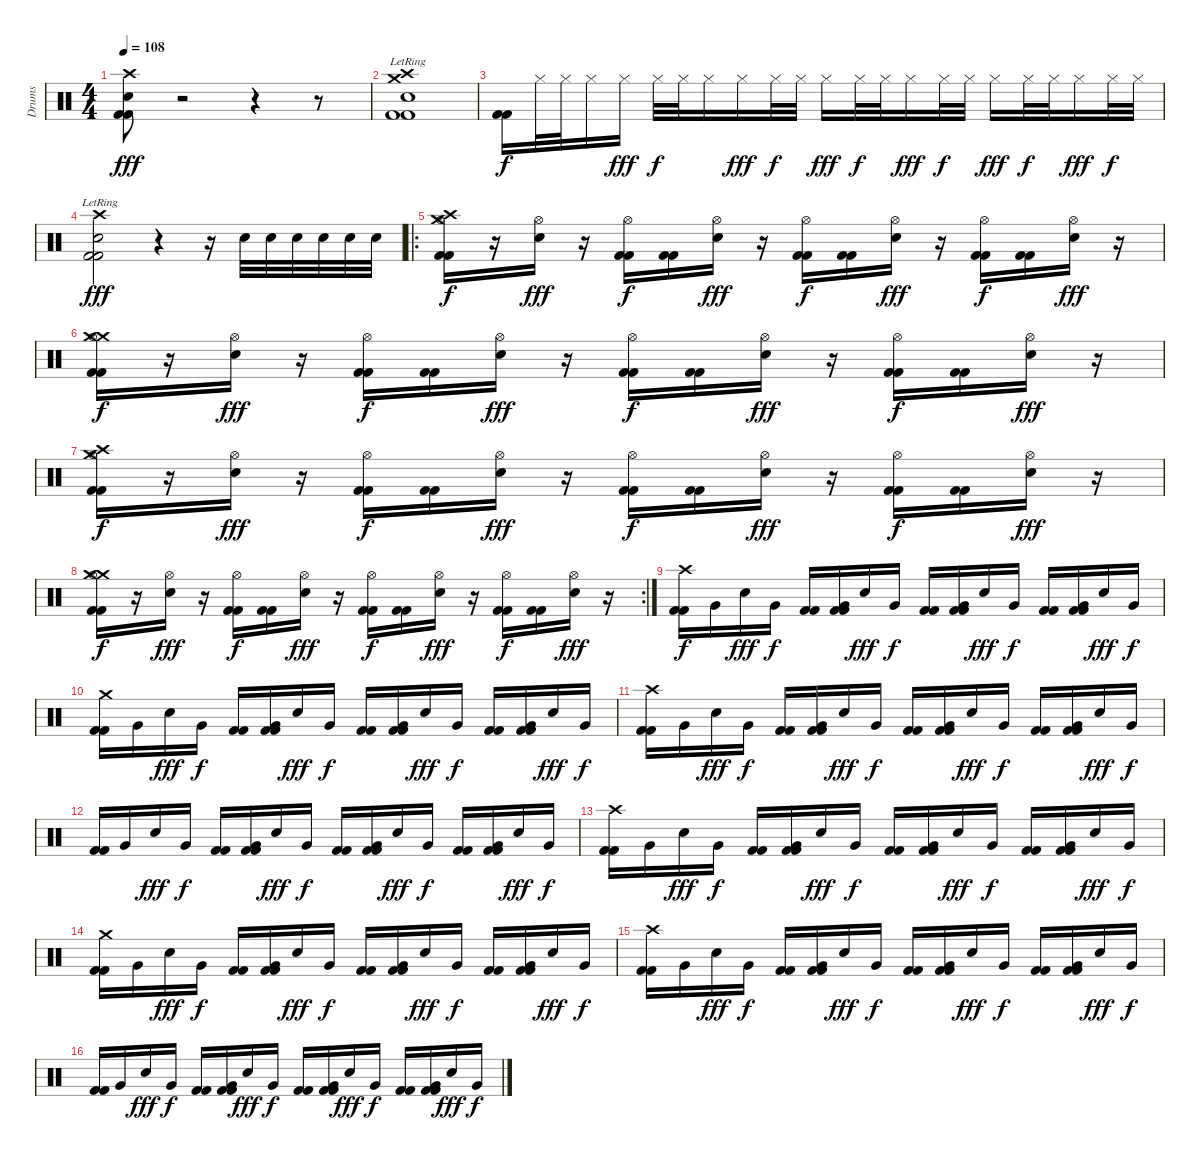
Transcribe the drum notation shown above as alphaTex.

\track ("Drums" "Drums") {instrument percussion}
\staff {score}
\articulation defaults
\ts (4 4)
\tempo 108
\clef neutral
\ks c
("Crash high (hit)" "Electric Snare (hit)" "Kick (hit) 2" "Kick (hit) 2").8{dy fff} r.2 r.4 r.8 |
("Crash high (hit)"{lr} "Crash medium (hit)"{lr} "Electric Snare (hit)"{lr} "Kick (hit) 2"{lr} "Kick (hit) 2"{lr}).1 |
("Kick (hit) 2" "Kick (hit) 2").16{dy f} "Hi-Hat (closed)".32 "Hi-Hat (closed)".32 "Hi-Hat (closed)".16 "Hi-Hat (closed)".16{dy fff} "Hi-Hat (closed)".32{dy f} "Hi-Hat (closed)".32 "Hi-Hat (closed)".16 "Hi-Hat (closed)".16{dy fff} "Hi-Hat (closed)".32{dy f} "Hi-Hat (closed)".32 "Hi-Hat (closed)".16{dy fff} "Hi-Hat (closed)".32{dy f} "Hi-Hat (closed)".32 "Hi-Hat (closed)".16{dy fff} "Hi-Hat (closed)".32{dy f} "Hi-Hat (closed)".32 "Hi-Hat (closed)".16{dy fff} "Hi-Hat (closed)".32{dy f} "Hi-Hat (closed)".32 "Hi-Hat (closed)".16{dy fff} "Hi-Hat (closed)".32{dy f} "Hi-Hat (closed)".32 |
("Crash high (hit)"{lr} "Electric Snare (hit)"{lr} "Kick (hit) 2"{lr} "Kick (hit) 2"{lr}).2{dy fff} r.4 r.16 "Electric Snare (hit)".32 "Electric Snare (hit)".32 "Electric Snare (hit)".32 "Electric Snare (hit)".32 "Electric Snare (hit)".32 "Electric Snare (hit)".32 |
\ro
("Crash high (hit)" "Crash medium (hit)" "Hi-Hat (open)" "Kick (hit) 2" "Kick (hit) 2").16{dy f} r.16 ("Hi-Hat (open)" "Electric Snare (hit)").16{dy fff} r.16 ("Hi-Hat (open)" "Kick (hit) 2" "Kick (hit) 2").16{dy f} ("Kick (hit) 2" "Kick (hit) 2").16 ("Hi-Hat (open)" "Electric Snare (hit)").16{dy fff} r.16 ("Hi-Hat (open)" "Kick (hit) 2" "Kick (hit) 2").16{dy f} ("Kick (hit) 2" "Kick (hit) 2").16 ("Hi-Hat (open)" "Electric Snare (hit)").16{dy fff} r.16 ("Hi-Hat (open)" "Kick (hit) 2" "Kick (hit) 2").16{dy f} ("Kick (hit) 2" "Kick (hit) 2").16 ("Hi-Hat (open)" "Electric Snare (hit)").16{dy fff} r.16 |
("Crash medium (hit)" "Crash medium (hit)" "Hi-Hat (open)" "Kick (hit) 2" "Kick (hit) 2").16{dy f} r.16 ("Hi-Hat (open)" "Electric Snare (hit)").16{dy fff} r.16 ("Hi-Hat (open)" "Kick (hit) 2" "Kick (hit) 2").16{dy f} ("Kick (hit) 2" "Kick (hit) 2").16 ("Hi-Hat (open)" "Electric Snare (hit)").16{dy fff} r.16 ("Hi-Hat (open)" "Kick (hit) 2" "Kick (hit) 2").16{dy f} ("Kick (hit) 2" "Kick (hit) 2").16 ("Hi-Hat (open)" "Electric Snare (hit)").16{dy fff} r.16 ("Hi-Hat (open)" "Kick (hit) 2" "Kick (hit) 2").16{dy f} ("Kick (hit) 2" "Kick (hit) 2").16 ("Hi-Hat (open)" "Electric Snare (hit)").16{dy fff} r.16 |
("Crash high (hit)" "Crash medium (hit)" "Hi-Hat (open)" "Kick (hit) 2" "Kick (hit) 2").16{dy f} r.16 ("Hi-Hat (open)" "Electric Snare (hit)").16{dy fff} r.16 ("Hi-Hat (open)" "Kick (hit) 2" "Kick (hit) 2").16{dy f} ("Kick (hit) 2" "Kick (hit) 2").16 ("Hi-Hat (open)" "Electric Snare (hit)").16{dy fff} r.16 ("Hi-Hat (open)" "Kick (hit) 2" "Kick (hit) 2").16{dy f} ("Kick (hit) 2" "Kick (hit) 2").16 ("Hi-Hat (open)" "Electric Snare (hit)").16{dy fff} r.16 ("Hi-Hat (open)" "Kick (hit) 2" "Kick (hit) 2").16{dy f} ("Kick (hit) 2" "Kick (hit) 2").16 ("Hi-Hat (open)" "Electric Snare (hit)").16{dy fff} r.16 |
\rc 2
("Crash medium (hit)" "Crash medium (hit)" "Hi-Hat (open)" "Kick (hit) 2" "Kick (hit) 2").16{dy f} r.16 ("Hi-Hat (open)" "Electric Snare (hit)").16{dy fff} r.16 ("Hi-Hat (open)" "Kick (hit) 2" "Kick (hit) 2").16{dy f} ("Kick (hit) 2" "Kick (hit) 2").16 ("Hi-Hat (open)" "Electric Snare (hit)").16{dy fff} r.16 ("Hi-Hat (open)" "Kick (hit) 2" "Kick (hit) 2").16{dy f} ("Kick (hit) 2" "Kick (hit) 2").16 ("Hi-Hat (open)" "Electric Snare (hit)").16{dy fff} r.16 ("Hi-Hat (open)" "Kick (hit) 2" "Kick (hit) 2").16{dy f} ("Kick (hit) 2" "Kick (hit) 2").16 ("Hi-Hat (open)" "Electric Snare (hit)").16{dy fff} r.16 |
("Crash high (hit)" "Kick (hit) 2" "Kick (hit) 2").16{dy f} "Very Low Tom (hit)".16 "Electric Snare (hit)".16{dy fff} "Very Low Tom (hit)".16{dy f} ("Kick (hit) 2" "Kick (hit) 2").16 ("Very Low Tom (hit)" "Kick (hit) 2" "Kick (hit) 2").16 "Electric Snare (hit)".16{dy fff} "Very Low Tom (hit)".16{dy f} ("Kick (hit) 2" "Kick (hit) 2").16 ("Very Low Tom (hit)" "Kick (hit) 2" "Kick (hit) 2").16 "Electric Snare (hit)".16{dy fff} "Very Low Tom (hit)".16{dy f} ("Kick (hit) 2" "Kick (hit) 2").16 ("Very Low Tom (hit)" "Kick (hit) 2" "Kick (hit) 2").16 "Electric Snare (hit)".16{dy fff} "Very Low Tom (hit)".16{dy f} |
("Crash medium (hit)" "Kick (hit) 2" "Kick (hit) 2").16 "Very Low Tom (hit)".16 "Electric Snare (hit)".16{dy fff} "Very Low Tom (hit)".16{dy f} ("Kick (hit) 2" "Kick (hit) 2").16 ("Very Low Tom (hit)" "Kick (hit) 2" "Kick (hit) 2").16 "Electric Snare (hit)".16{dy fff} "Very Low Tom (hit)".16{dy f} ("Kick (hit) 2" "Kick (hit) 2").16 ("Very Low Tom (hit)" "Kick (hit) 2" "Kick (hit) 2").16 "Electric Snare (hit)".16{dy fff} "Very Low Tom (hit)".16{dy f} ("Kick (hit) 2" "Kick (hit) 2").16 ("Very Low Tom (hit)" "Kick (hit) 2" "Kick (hit) 2").16 "Electric Snare (hit)".16{dy fff} "Very Low Tom (hit)".16{dy f} |
("Crash high (hit)" "Kick (hit) 2" "Kick (hit) 2").16 "Very Low Tom (hit)".16 "Electric Snare (hit)".16{dy fff} "Very Low Tom (hit)".16{dy f} ("Kick (hit) 2" "Kick (hit) 2").16 ("Very Low Tom (hit)" "Kick (hit) 2" "Kick (hit) 2").16 "Electric Snare (hit)".16{dy fff} "Very Low Tom (hit)".16{dy f} ("Kick (hit) 2" "Kick (hit) 2").16 ("Very Low Tom (hit)" "Kick (hit) 2" "Kick (hit) 2").16 "Electric Snare (hit)".16{dy fff} "Very Low Tom (hit)".16{dy f} ("Kick (hit) 2" "Kick (hit) 2").16 ("Very Low Tom (hit)" "Kick (hit) 2" "Kick (hit) 2").16 "Electric Snare (hit)".16{dy fff} "Very Low Tom (hit)".16{dy f} |
("Kick (hit) 2" "Kick (hit) 2").16 "Very Low Tom (hit)".16 "Electric Snare (hit)".16{dy fff} "Very Low Tom (hit)".16{dy f} ("Kick (hit) 2" "Kick (hit) 2").16 ("Very Low Tom (hit)" "Kick (hit) 2" "Kick (hit) 2").16 "Electric Snare (hit)".16{dy fff} "Very Low Tom (hit)".16{dy f} ("Kick (hit) 2" "Kick (hit) 2").16 ("Very Low Tom (hit)" "Kick (hit) 2" "Kick (hit) 2").16 "Electric Snare (hit)".16{dy fff} "Very Low Tom (hit)".16{dy f} ("Kick (hit) 2" "Kick (hit) 2").16 ("Very Low Tom (hit)" "Kick (hit) 2" "Kick (hit) 2").16 "Electric Snare (hit)".16{dy fff} "Very Low Tom (hit)".16{dy f} |
("Crash high (hit)" "Kick (hit) 2" "Kick (hit) 2").16 "Very Low Tom (hit)".16 "Electric Snare (hit)".16{dy fff} "Very Low Tom (hit)".16{dy f} ("Kick (hit) 2" "Kick (hit) 2").16 ("Very Low Tom (hit)" "Kick (hit) 2" "Kick (hit) 2").16 "Electric Snare (hit)".16{dy fff} "Very Low Tom (hit)".16{dy f} ("Kick (hit) 2" "Kick (hit) 2").16 ("Very Low Tom (hit)" "Kick (hit) 2" "Kick (hit) 2").16 "Electric Snare (hit)".16{dy fff} "Very Low Tom (hit)".16{dy f} ("Kick (hit) 2" "Kick (hit) 2").16 ("Very Low Tom (hit)" "Kick (hit) 2" "Kick (hit) 2").16 "Electric Snare (hit)".16{dy fff} "Very Low Tom (hit)".16{dy f} |
("Crash medium (hit)" "Kick (hit) 2" "Kick (hit) 2").16 "Very Low Tom (hit)".16 "Electric Snare (hit)".16{dy fff} "Very Low Tom (hit)".16{dy f} ("Kick (hit) 2" "Kick (hit) 2").16 ("Very Low Tom (hit)" "Kick (hit) 2" "Kick (hit) 2").16 "Electric Snare (hit)".16{dy fff} "Very Low Tom (hit)".16{dy f} ("Kick (hit) 2" "Kick (hit) 2").16 ("Very Low Tom (hit)" "Kick (hit) 2" "Kick (hit) 2").16 "Electric Snare (hit)".16{dy fff} "Very Low Tom (hit)".16{dy f} ("Kick (hit) 2" "Kick (hit) 2").16 ("Very Low Tom (hit)" "Kick (hit) 2" "Kick (hit) 2").16 "Electric Snare (hit)".16{dy fff} "Very Low Tom (hit)".16{dy f} |
("Crash high (hit)" "Kick (hit) 2" "Kick (hit) 2").16 "Very Low Tom (hit)".16 "Electric Snare (hit)".16{dy fff} "Very Low Tom (hit)".16{dy f} ("Kick (hit) 2" "Kick (hit) 2").16 ("Very Low Tom (hit)" "Kick (hit) 2" "Kick (hit) 2").16 "Electric Snare (hit)".16{dy fff} "Very Low Tom (hit)".16{dy f} ("Kick (hit) 2" "Kick (hit) 2").16 ("Very Low Tom (hit)" "Kick (hit) 2" "Kick (hit) 2").16 "Electric Snare (hit)".16{dy fff} "Very Low Tom (hit)".16{dy f} ("Kick (hit) 2" "Kick (hit) 2").16 ("Very Low Tom (hit)" "Kick (hit) 2" "Kick (hit) 2").16 "Electric Snare (hit)".16{dy fff} "Very Low Tom (hit)".16{dy f} |
("Kick (hit) 2" "Kick (hit) 2").16 "Very Low Tom (hit)".16 "Electric Snare (hit)".16{dy fff} "Very Low Tom (hit)".16{dy f} ("Kick (hit) 2" "Kick (hit) 2").16 ("Very Low Tom (hit)" "Kick (hit) 2" "Kick (hit) 2").16 "Electric Snare (hit)".16{dy fff} "Very Low Tom (hit)".16{dy f} ("Kick (hit) 2" "Kick (hit) 2").16 ("Very Low Tom (hit)" "Kick (hit) 2" "Kick (hit) 2").16 "Electric Snare (hit)".16{dy fff} "Very Low Tom (hit)".16{dy f} ("Kick (hit) 2" "Kick (hit) 2").16 ("Very Low Tom (hit)" "Kick (hit) 2" "Kick (hit) 2").16 "Electric Snare (hit)".16{dy fff} "Very Low Tom (hit)".16{dy f}
